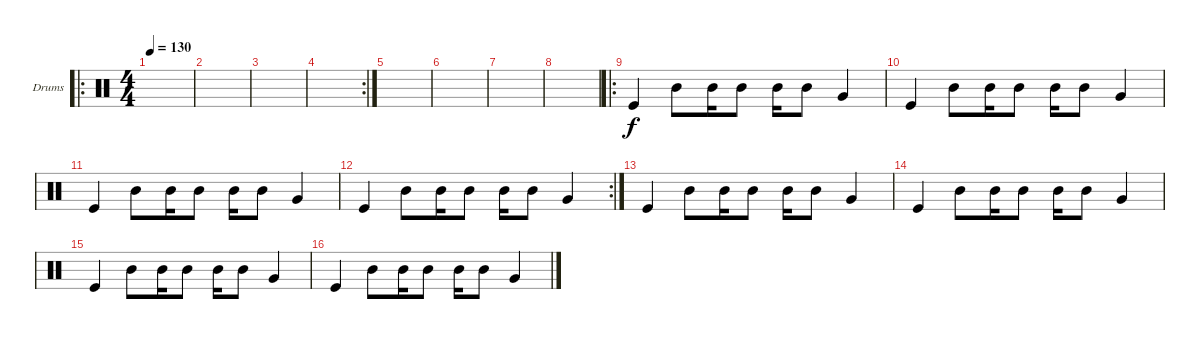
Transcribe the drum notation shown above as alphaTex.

\defaultSystemsLayout 4
\bracketExtendMode groupsimilarinstruments
\firstSystemTrackNameOrientation horizontal
\otherSystemsTrackNameOrientation horizontal
\track ("Барабаны3" "Drums") {instrument percussion}
\staff {score}
\articulation defaults
\ro
\ts (4 4)
\tempo 130
\clef neutral
\scale
0.377049
\ks c
|
\scale
0.311475 |
\scale
0.311475 |
\rc 2
\scale
0.355932 |
\scale
0.322034 |
\scale
0.322034 |
\scale
0.333333 |
\scale
0.333333 |
\ro
\scale
0.333333 "Kick (hit)".4 "Mid Tom (hit)".8 "Mid Tom (hit)".16 "Mid Tom (hit)".8 "Mid Tom (hit)".16 "Mid Tom (hit)".8 "Very Low Tom (hit)".4 |
\scale
0.333333 "Kick (hit)".4 "Mid Tom (hit)".8 "Mid Tom (hit)".16 "Mid Tom (hit)".8 "Mid Tom (hit)".16 "Mid Tom (hit)".8 "Very Low Tom (hit)".4 |
\scale
0.333333 "Kick (hit)".4 "Mid Tom (hit)".8 "Mid Tom (hit)".16 "Mid Tom (hit)".8 "Mid Tom (hit)".16 "Mid Tom (hit)".8 "Very Low Tom (hit)".4 |
\rc 2
\scale
0.333333 "Kick (hit)".4 "Mid Tom (hit)".8 "Mid Tom (hit)".16 "Mid Tom (hit)".8 "Mid Tom (hit)".16 "Mid Tom (hit)".8 "Very Low Tom (hit)".4 |
\scale
0.333333 "Kick (hit)".4 "Mid Tom (hit)".8 "Mid Tom (hit)".16 "Mid Tom (hit)".8 "Mid Tom (hit)".16 "Mid Tom (hit)".8 "Very Low Tom (hit)".4 |
\scale
0.333333 "Kick (hit)".4 "Mid Tom (hit)".8 "Mid Tom (hit)".16 "Mid Tom (hit)".8 "Mid Tom (hit)".16 "Mid Tom (hit)".8 "Very Low Tom (hit)".4 |
\scale
0.333333 "Kick (hit)".4 "Mid Tom (hit)".8 "Mid Tom (hit)".16 "Mid Tom (hit)".8 "Mid Tom (hit)".16 "Mid Tom (hit)".8 "Very Low Tom (hit)".4 |
\scale
0.311475 "Kick (hit)".4 "Mid Tom (hit)".8 "Mid Tom (hit)".16 "Mid Tom (hit)".8 "Mid Tom (hit)".16 "Mid Tom (hit)".8 "Very Low Tom (hit)".4
